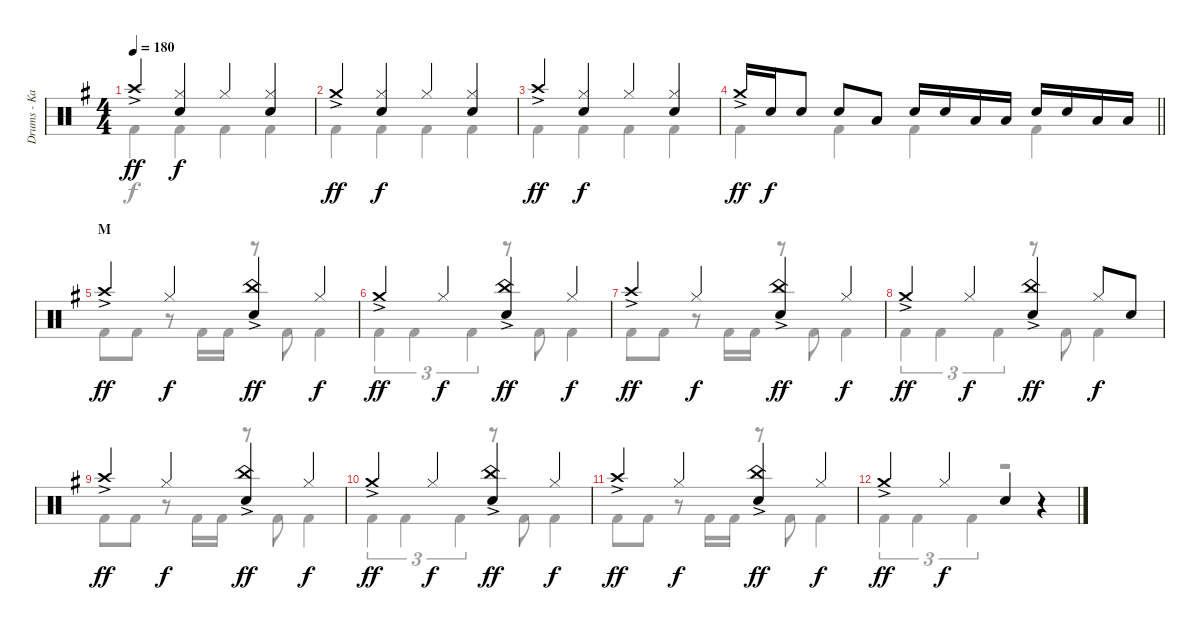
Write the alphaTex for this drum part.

\track ("Drums - Kai" "Drums - Ka") {instrument percussion}
\staff {score}
\articulation defaults
\voice
\ts (4 4)
\tempo 180
\clef neutral
\ks g "Crash high (hit)"{ac}.4{dy ff}
("Hi-Hat (closed)" "Snare (hit) 2").4{dy f} "Hi-Hat (closed)".4 ("Hi-Hat (closed)" "Snare (hit) 2").4 |
"Crash medium (hit)"{ac}.4{dy ff} ("Hi-Hat (closed)" "Snare (hit) 2").4{dy f} "Hi-Hat (closed)".4 ("Hi-Hat (closed)" "Snare (hit) 2").4 |
"Crash high (hit)"{ac}.4{dy ff} ("Hi-Hat (closed)" "Snare (hit) 2").4{dy f} "Hi-Hat (closed)".4 ("Hi-Hat (closed)" "Snare (hit) 2").4 |
\barLineRight lightlight "Crash medium (hit)"{ac}.16{dy ff} "Snare (hit) 2".16{dy f} "Snare (hit) 2".8 "Snare (hit) 2".8 "Low Tom (hit)".8 "Snare (hit) 2".16 "Snare (hit) 2".16 "Low Tom (hit)".16 "Low Tom (hit)".16 "Snare (hit) 2".16 "Snare (hit) 2".16 "Low Tom (hit)".16 "Low Tom (hit)".16
|
\section ("" "M")
"Crash high (hit)"{ac}.4{dy ff} "Hi-Hat (closed)".4{dy f} ("China (hit)"{ac} "Snare (hit) 2").4{dy ff} "Hi-Hat (closed)".4{dy f} |
"Crash medium (hit)"{ac}.4{dy ff} "Hi-Hat (closed)".4{dy f} ("China (hit)"{ac} "Snare (hit) 2").4{dy ff} "Hi-Hat (closed)".4{dy f} |
"Crash high (hit)"{ac}.4{dy ff} "Hi-Hat (closed)".4{dy f} ("China (hit)"{ac} "Snare (hit) 2").4{dy ff} "Hi-Hat (closed)".4{dy f} |
"Crash medium (hit)"{ac}.4{dy ff} "Hi-Hat (closed)".4{dy f} ("China (hit)"{ac} "Snare (hit) 2").4{dy ff} "Hi-Hat (closed)".8{dy f} "Snare (hit) 2".8 |
"Crash high (hit)"{ac}.4{dy ff} "Hi-Hat (closed)".4{dy f} ("China (hit)"{ac} "Snare (hit) 2").4{dy ff} "Hi-Hat (closed)".4{dy f} |
"Crash medium (hit)"{ac}.4{dy ff} "Hi-Hat (closed)".4{dy f} ("China (hit)"{ac} "Snare (hit) 2").4{dy ff} "Hi-Hat (closed)".4{dy f} |
"Crash high (hit)"{ac}.4{dy ff} "Hi-Hat (closed)".4{dy f} ("China (hit)"{ac} "Snare (hit) 2").4{dy ff} "Hi-Hat (closed)".4{dy f} |
"Crash medium (hit)"{ac}.4{dy ff} "Hi-Hat (closed)".4{dy f} "Snare (hit) 2".4 r.4
\voice
\clef neutral
\ottava regular
\simile none
\ks g "Kick (hit) 2".4{dy f} "Kick (hit) 2".4 "Kick (hit) 2".4 "Kick (hit) 2".4
|
"Kick (hit) 2".4 "Kick (hit) 2".4 "Kick (hit) 2".4 "Kick (hit) 2".4 |
"Kick (hit) 2".4 "Kick (hit) 2".4 "Kick (hit) 2".4 "Kick (hit) 2".4 |
\barLineRight lightlight "Kick (hit) 2".4 "Kick (hit) 2".4 "Kick (hit) 2".4 "Kick (hit) 2".4
|
"Kick (hit) 2".8 "Kick (hit) 2".8 r.8 "Kick (hit) 2".16 "Kick (hit) 2".16 r.8 "Kick (hit) 2".8 "Kick (hit) 2".4 |
"Kick (hit) 2".4{tu (3 2)} "Kick (hit) 2".4{tu (3 2)} "Kick (hit) 2".4{tu (3 2)} r.8 "Kick (hit) 2".8 "Kick (hit) 2".4 |
"Kick (hit) 2".8 "Kick (hit) 2".8 r.8 "Kick (hit) 2".16 "Kick (hit) 2".16 r.8 "Kick (hit) 2".8 "Kick (hit) 2".4 |
"Kick (hit) 2".4{tu (3 2)} "Kick (hit) 2".4{tu (3 2)} "Kick (hit) 2".4{tu (3 2)} r.8 "Kick (hit) 2".8 "Kick (hit) 2".4 |
"Kick (hit) 2".8 "Kick (hit) 2".8 r.8 "Kick (hit) 2".16 "Kick (hit) 2".16 r.8 "Kick (hit) 2".8 "Kick (hit) 2".4 |
"Kick (hit) 2".4{tu (3 2)} "Kick (hit) 2".4{tu (3 2)} "Kick (hit) 2".4{tu (3 2)} r.8 "Kick (hit) 2".8 "Kick (hit) 2".4 |
"Kick (hit) 2".8 "Kick (hit) 2".8 r.8 "Kick (hit) 2".16 "Kick (hit) 2".16 r.8 "Kick (hit) 2".8 "Kick (hit) 2".4 |
"Kick (hit) 2".4{tu (3 2)} "Kick (hit) 2".4{tu (3 2)} "Kick (hit) 2".4{tu (3 2)} r.2
